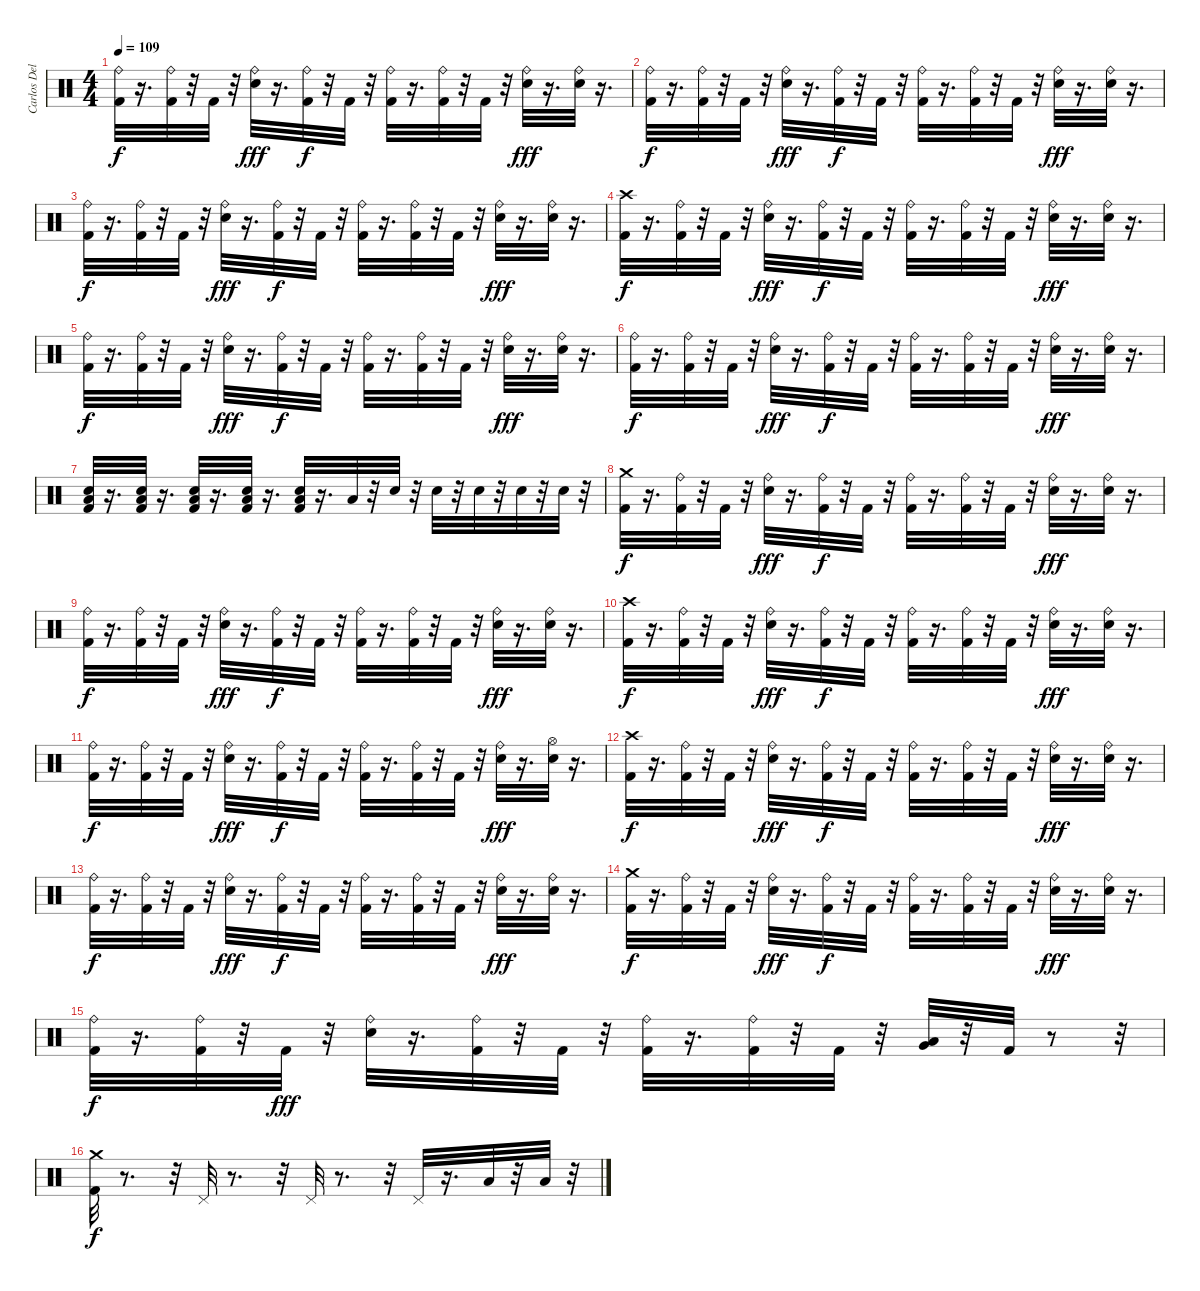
\track ("Carlos Delgado" "Carlos Del") {instrument percussion}
\staff {score}
\articulation defaults
\ts (4 4)
\tempo 109
\clef neutral
\ks c
("Kick (hit) 2" "Ride (bell)").32{dy f} r.16{d} ("Ride (bell)" "Kick (hit) 2").32 r.32 "Kick (hit) 2".32 r.32 ("Ride (bell)" "Electric Snare (hit)").32{dy fff} r.16{d} ("Ride (bell)" "Kick (hit) 2").32{dy f} r.32 "Kick (hit) 2".32 r.32 ("Kick (hit) 2" "Ride (bell)").32 r.16{d} ("Ride (bell)" "Kick (hit) 2").32 r.32 "Kick (hit) 2".32 r.32 ("Ride (bell)" "Electric Snare (hit)").32{dy fff} r.16{d} ("Electric Snare (hit)" "Ride (bell)").32 r.16{d} |
("Ride (bell)" "Kick (hit) 2").32{dy f} r.16{d} ("Ride (bell)" "Kick (hit) 2").32 r.32 "Kick (hit) 2".32 r.32 ("Ride (bell)" "Electric Snare (hit)").32{dy fff} r.16{d} ("Kick (hit) 2" "Ride (bell)").32{dy f} r.32 "Kick (hit) 2".32 r.32 ("Kick (hit) 2" "Ride (bell)").32 r.16{d} ("Ride (bell)" "Kick (hit) 2").32 r.32 "Kick (hit) 2".32 r.32 ("Electric Snare (hit)" "Ride (bell)").32{dy fff} r.16{d} ("Ride (bell)" "Electric Snare (hit)").32 r.16{d} |
("Ride (bell)" "Kick (hit) 2").32{dy f} r.16{d} ("Ride (bell)" "Kick (hit) 2").32 r.32 "Kick (hit) 2".32 r.32 ("Electric Snare (hit)" "Ride (bell)").32{dy fff} r.16{d} ("Kick (hit) 2" "Ride (bell)").32{dy f} r.32 "Kick (hit) 2".32 r.32 ("Kick (hit) 2" "Ride (bell)").32 r.16{d} ("Ride (bell)" "Kick (hit) 2").32 r.32 "Kick (hit) 2".32 r.32 ("Ride (bell)" "Electric Snare (hit)").32{dy fff} r.16{d} ("Ride (bell)" "Electric Snare (hit)").32 r.16{d} |
("Kick (hit) 2" "Crash high (hit)").32{dy f} r.16{d} ("Ride (bell)" "Kick (hit) 2").32 r.32 "Kick (hit) 2".32 r.32 ("Ride (bell)" "Electric Snare (hit)").32{dy fff} r.16{d} ("Kick (hit) 2" "Ride (bell)").32{dy f} r.32 "Kick (hit) 2".32 r.32 ("Ride (bell)" "Kick (hit) 2").32 r.16{d} ("Kick (hit) 2" "Ride (bell)").32 r.32 "Kick (hit) 2".32 r.32 ("Ride (bell)" "Electric Snare (hit)").32{dy fff} r.16{d} ("Ride (bell)" "Electric Snare (hit)").32 r.16{d} |
("Ride (bell)" "Kick (hit) 2").32{dy f} r.16{d} ("Ride (bell)" "Kick (hit) 2").32 r.32 "Kick (hit) 2".32 r.32 ("Ride (bell)" "Electric Snare (hit)").32{dy fff} r.16{d} ("Kick (hit) 2" "Ride (bell)").32{dy f} r.32 "Kick (hit) 2".32 r.32 ("Ride (bell)" "Kick (hit) 2").32 r.16{d} ("Ride (bell)" "Kick (hit) 2").32 r.32 "Kick (hit) 2".32 r.32 ("Electric Snare (hit)" "Ride (bell)").32{dy fff} r.16{d} ("Electric Snare (hit)" "Ride (bell)").32 r.16{d} |
("Kick (hit) 2" "Ride (bell)").32{dy f} r.16{d} ("Ride (bell)" "Kick (hit) 2").32 r.32 "Kick (hit) 2".32 r.32 ("Electric Snare (hit)" "Ride (bell)").32{dy fff} r.16{d} ("Ride (bell)" "Kick (hit) 2").32{dy f} r.32 "Kick (hit) 2".32 r.32 ("Ride (bell)" "Kick (hit) 2").32 r.16{d} ("Kick (hit) 2" "Ride (bell)").32 r.32 "Kick (hit) 2".32 r.32 ("Ride (bell)" "Electric Snare (hit)").32{dy fff} r.16{d} ("Ride (bell)" "Electric Snare (hit)").32 r.16{d} |
("Kick (hit) 2" "Low Floor Tom (hit)" "Electric Snare (hit)").32 r.16{d} ("Low Floor Tom (hit)" "Electric Snare (hit)" "Kick (hit) 2").32 r.16{d} ("Low Floor Tom (hit)" "Kick (hit) 2" "Electric Snare (hit)").32 r.16{d} ("Low Floor Tom (hit)" "Kick (hit) 2" "Electric Snare (hit)").32 r.16{d} ("Low Floor Tom (hit)" "Kick (hit) 2" "Electric Snare (hit)").32 r.16{d} "Low Floor Tom (hit)".32 r.32 "Electric Snare (hit)".32 r.32 "Electric Snare (hit)".32 r.32 "Electric Snare (hit)".32 r.32 "Electric Snare (hit)".32 r.32 "Electric Snare (hit)".32 r.32 |
("Crash medium (hit)" "Kick (hit) 2").32{dy f} r.16{d} ("Ride (bell)" "Kick (hit) 2").32 r.32 "Kick (hit) 2".32 r.32 ("Ride (bell)" "Electric Snare (hit)").32{dy fff} r.16{d} ("Kick (hit) 2" "Ride (bell)").32{dy f} r.32 "Kick (hit) 2".32 r.32 ("Ride (bell)" "Kick (hit) 2").32 r.16{d} ("Kick (hit) 2" "Ride (bell)").32 r.32 "Kick (hit) 2".32 r.32 ("Ride (bell)" "Electric Snare (hit)").32{dy fff} r.16{d} ("Electric Snare (hit)" "Ride (bell)").32 r.16{d} |
("Kick (hit) 2" "Ride (bell)").32{dy f} r.16{d} ("Ride (bell)" "Kick (hit) 2").32 r.32 "Kick (hit) 2".32 r.32 ("Ride (bell)" "Electric Snare (hit)").32{dy fff} r.16{d} ("Ride (bell)" "Kick (hit) 2").32{dy f} r.32 "Kick (hit) 2".32 r.32 ("Kick (hit) 2" "Ride (bell)").32 r.16{d} ("Kick (hit) 2" "Ride (bell)").32 r.32 "Kick (hit) 2".32 r.32 ("Electric Snare (hit)" "Ride (bell)").32{dy fff} r.16{d} ("Ride (bell)" "Electric Snare (hit)").32 r.16{d} |
("Crash high (hit)" "Kick (hit) 2").32{dy f} r.16{d} ("Ride (bell)" "Kick (hit) 2").32 r.32 "Kick (hit) 2".32 r.32 ("Electric Snare (hit)" "Ride (bell)").32{dy fff} r.16{d} ("Kick (hit) 2" "Ride (bell)").32{dy f} r.32 "Kick (hit) 2".32 r.32 ("Kick (hit) 2" "Ride (bell)").32 r.16{d} ("Ride (bell)" "Kick (hit) 2").32 r.32 "Kick (hit) 2".32 r.32 ("Electric Snare (hit)" "Ride (bell)").32{dy fff} r.16{d} ("Electric Snare (hit)" "Ride (bell)").32 r.16{d} |
("Kick (hit) 2" "Ride (bell)").32{dy f} r.16{d} ("Ride (bell)" "Kick (hit) 2").32 r.32 "Kick (hit) 2".32 r.32 ("Electric Snare (hit)" "Ride (bell)").32{dy fff} r.16{d} ("Ride (bell)" "Kick (hit) 2").32{dy f} r.32 "Kick (hit) 2".32 r.32 ("Kick (hit) 2" "Ride (bell)").32 r.16{d} ("Ride (bell)" "Kick (hit) 2").32 r.32 "Kick (hit) 2".32 r.32 ("Electric Snare (hit)" "Ride (bell)").32{dy fff} r.16{d} ("Hi-Hat (open)" "Electric Snare (hit)").32 r.16{d} |
("Kick (hit) 2" "Crash high (hit)").32{dy f} r.16{d} ("Kick (hit) 2" "Ride (bell)").32 r.32 "Kick (hit) 2".32 r.32 ("Ride (bell)" "Electric Snare (hit)").32{dy fff} r.16{d} ("Ride (bell)" "Kick (hit) 2").32{dy f} r.32 "Kick (hit) 2".32 r.32 ("Ride (bell)" "Kick (hit) 2").32 r.16{d} ("Kick (hit) 2" "Ride (bell)").32 r.32 "Kick (hit) 2".32 r.32 ("Electric Snare (hit)" "Ride (bell)").32{dy fff} r.16{d} ("Electric Snare (hit)" "Ride (bell)").32 r.16{d} |
("Kick (hit) 2" "Ride (bell)").32{dy f} r.16{d} ("Ride (bell)" "Kick (hit) 2").32 r.32 "Kick (hit) 2".32 r.32 ("Ride (bell)" "Electric Snare (hit)").32{dy fff} r.16{d} ("Kick (hit) 2" "Ride (bell)").32{dy f} r.32 "Kick (hit) 2".32 r.32 ("Kick (hit) 2" "Ride (bell)").32 r.16{d} ("Ride (bell)" "Kick (hit) 2").32 r.32 "Kick (hit) 2".32 r.32 ("Ride (bell)" "Electric Snare (hit)").32{dy fff} r.16{d} ("Ride (bell)" "Electric Snare (hit)").32 r.16{d} |
("Crash medium (hit)" "Kick (hit) 2").32{dy f} r.16{d} ("Ride (bell)" "Kick (hit) 2").32 r.32 "Kick (hit) 2".32 r.32 ("Ride (bell)" "Electric Snare (hit)").32{dy fff} r.16{d} ("Ride (bell)" "Kick (hit) 2").32{dy f} r.32 "Kick (hit) 2".32 r.32 ("Ride (bell)" "Kick (hit) 2").32 r.16{d} ("Kick (hit) 2" "Ride (bell)").32 r.32 "Kick (hit) 2".32 r.32 ("Electric Snare (hit)" "Ride (bell)").32{dy fff} r.16{d} ("Electric Snare (hit)" "Ride (bell)").32 r.16{d} |
("Kick (hit) 2" "Ride (bell)").32{dy f} r.16{d} ("Kick (hit) 2" "Ride (bell)").32 r.32 "Kick (hit) 2".32{dy fff} r.32 ("Ride (bell)" "Electric Snare (hit)").32 r.16{d} ("Ride (bell)" "Kick (hit) 2").32 r.32 "Kick (hit) 2".32 r.32 ("Kick (hit) 2" "Ride (bell)").32 r.16{d} ("Kick (hit) 2" "Ride (bell)").32 r.32 "Kick (hit) 2".32 r.32 ("Low Floor Tom (hit)" "Very Low Tom (hit)").32 r.32 "Kick (hit) 2".32 r.8 r.32 |
("Crash medium (hit)" "Kick (hit) 2").32{dy f} r.8{d} r.32 "Pedal Hi-Hat (hit)".32 r.8{d} r.32 "Pedal Hi-Hat (hit)".32 r.8{d} r.32 "Pedal Hi-Hat (hit)".32 r.16{d} "Low Floor Tom (hit)".32 r.32 "Low Floor Tom (hit)".32 r.32
